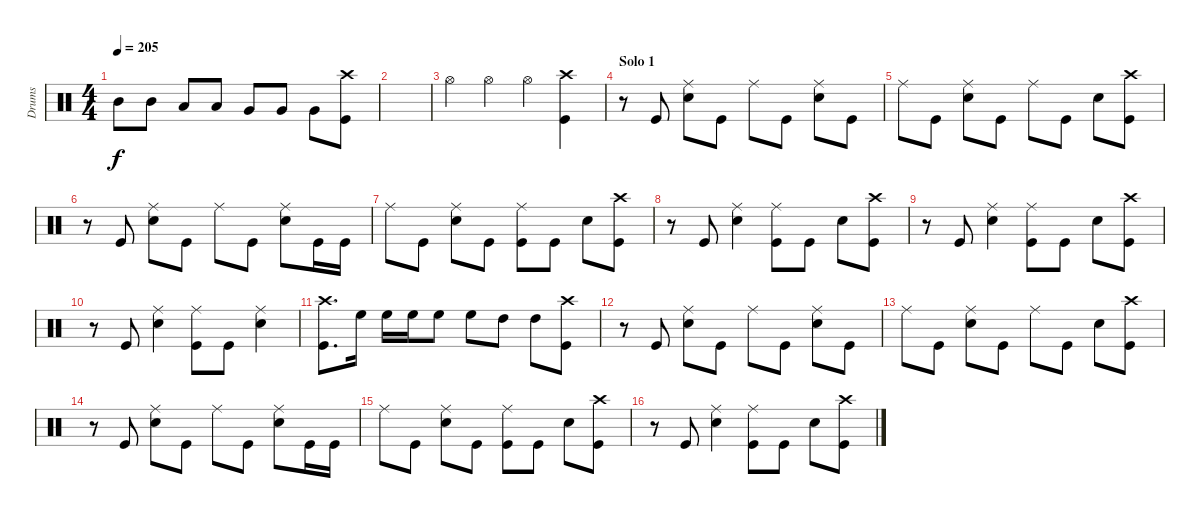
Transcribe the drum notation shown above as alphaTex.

\track ("Drums" "Drums") {instrument percussion}
\staff {score}
\articulation defaults
\ts (4 4)
\tempo 205
\clef neutral
\ks c "Mid Tom (hit)".8{dy f} "Mid Tom (hit)".8 "Low Tom (hit)".8 "Low Tom (hit)".8 "Very Low Tom (hit)".8 "Very Low Tom (hit)".8 "Very Low Tom (hit)".8
("Crash high (hit)" "Kick (hit)").8 |
|
"Hi-Hat (open)".4 "Hi-Hat (open)".4 "Hi-Hat (open)".4 ("Crash high (hit)" "Kick (hit)").4 |
\section ("" "Solo 1")
r.8 "Kick (hit)".8 ("Ride (middle)" "Snare (hit) 2").8 "Kick (hit)".8 "Ride (middle)".8 "Kick (hit)".8 ("Ride (middle)" "Snare (hit) 2").8 "Kick (hit)".8 |
"Ride (middle)".8 "Kick (hit)".8 ("Ride (middle)" "Snare (hit) 2").8 "Kick (hit)".8 "Ride (middle)".8 "Kick (hit)".8 "Snare (hit) 2".8 ("Crash high (hit)" "Kick (hit)").8 |
r.8 "Kick (hit)".8 ("Ride (middle)" "Snare (hit) 2").8 "Kick (hit)".8 "Ride (middle)".8 "Kick (hit)".8 ("Ride (middle)" "Snare (hit) 2").8 "Kick (hit)".16 "Kick (hit)".16 |
"Ride (middle)".8 "Kick (hit)".8 ("Ride (middle)" "Snare (hit) 2").8 "Kick (hit)".8 ("Ride (middle)" "Kick (hit)").8 "Kick (hit)".8 "Snare (hit) 2".8 ("Crash high (hit)" "Kick (hit)").8 |
r.8 "Kick (hit)".8 ("Ride (middle)" "Snare (hit) 2").4 ("Ride (middle)" "Kick (hit)").8 "Kick (hit)".8 "Snare (hit) 2".8 ("Crash high (hit)" "Kick (hit)").8 |
r.8 "Kick (hit)".8 ("Ride (middle)" "Snare (hit) 2").4 ("Ride (middle)" "Kick (hit)").8 "Kick (hit)".8 "Snare (hit) 2".8 ("Crash high (hit)" "Kick (hit)").8 |
r.8 "Kick (hit)".8 ("Ride (middle)" "Snare (hit) 2").4 ("Ride (middle)" "Kick (hit)").8 "Kick (hit)".8 ("Ride (middle)" "Snare (hit) 2").4 |
("Crash high (hit)" "Kick (hit)").8{d} "High Floor Tom (hit)".16 "High Floor Tom (hit)".16 "High Floor Tom (hit)".16 "High Floor Tom (hit)".8 "High Floor Tom (hit)".8 "High Tom (hit)".8 "High Tom (hit)".8 ("Crash high (hit)" "Kick (hit)").8 |
r.8 "Kick (hit)".8 ("Ride (middle)" "Snare (hit) 2").8 "Kick (hit)".8 "Ride (middle)".8 "Kick (hit)".8 ("Ride (middle)" "Snare (hit) 2").8 "Kick (hit)".8 |
"Ride (middle)".8 "Kick (hit)".8 ("Ride (middle)" "Snare (hit) 2").8 "Kick (hit)".8 "Ride (middle)".8 "Kick (hit)".8 "Snare (hit) 2".8 ("Crash high (hit)" "Kick (hit)").8 |
r.8 "Kick (hit)".8 ("Ride (middle)" "Snare (hit) 2").8 "Kick (hit)".8 "Ride (middle)".8 "Kick (hit)".8 ("Ride (middle)" "Snare (hit) 2").8 "Kick (hit)".16 "Kick (hit)".16 |
"Ride (middle)".8 "Kick (hit)".8 ("Ride (middle)" "Snare (hit) 2").8 "Kick (hit)".8 ("Ride (middle)" "Kick (hit)").8 "Kick (hit)".8 "Snare (hit) 2".8 ("Crash high (hit)" "Kick (hit)").8 |
r.8 "Kick (hit)".8 ("Ride (middle)" "Snare (hit) 2").4 ("Ride (middle)" "Kick (hit)").8 "Kick (hit)".8 "Snare (hit) 2".8 ("Crash high (hit)" "Kick (hit)").8
